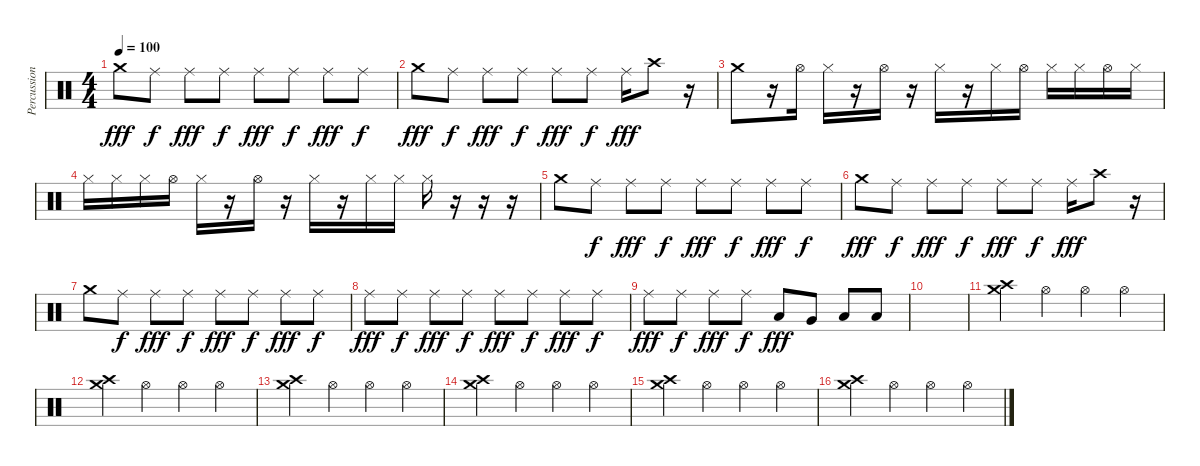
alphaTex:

\track ("Percussion" "Percussion") {instrument percussion}
\staff {score}
\articulation defaults
\ts (4 4)
\tempo 100
\clef neutral
\ks c "Crash medium (hit)".8{dy fff} "Ride (middle)".8{dy f} "Ride (middle)".8{dy fff} "Ride (middle)".8{dy f} "Ride (middle)".8{dy fff} "Ride (middle)".8{dy f} "Ride (middle)".8{dy fff} "Ride (middle)".8{dy f}
|
"Crash medium (hit)".8{dy fff} "Ride (middle)".8{dy f} "Ride (middle)".8{dy fff} "Ride (middle)".8{dy f} "Ride (middle)".8{dy fff} "Ride (middle)".8{dy f} "Ride (middle)".16{dy fff} "Crash high (hit)".8 r.16 |
"Crash medium (hit)".8 r.16 "Hi-Hat (open)".16 "Hi-Hat (closed)".16 r.16 "Hi-Hat (open)".16 r.16 "Hi-Hat (closed)".16 r.16 "Hi-Hat (closed)".16 "Hi-Hat (open)".16 "Hi-Hat (closed)".16 "Hi-Hat (closed)".16 "Hi-Hat (open)".16 "Hi-Hat (closed)".16 |
"Hi-Hat (closed)".16 "Hi-Hat (closed)".16 "Hi-Hat (closed)".16 "Hi-Hat (open)".16 "Hi-Hat (closed)".16 r.16 "Hi-Hat (open)".16 r.16 "Hi-Hat (closed)".16 r.16 "Hi-Hat (closed)".16 "Hi-Hat (closed)".16 "Hi-Hat (closed)".16 r.16 r.16 r.16 |
"Crash medium (hit)".8 "Ride (middle)".8{dy f} "Ride (middle)".8{dy fff} "Ride (middle)".8{dy f} "Ride (middle)".8{dy fff} "Ride (middle)".8{dy f} "Ride (middle)".8{dy fff} "Ride (middle)".8{dy f} |
"Crash medium (hit)".8{dy fff} "Ride (middle)".8{dy f} "Ride (middle)".8{dy fff} "Ride (middle)".8{dy f} "Ride (middle)".8{dy fff} "Ride (middle)".8{dy f} "Ride (middle)".16{dy fff} "Crash high (hit)".8 r.16 |
"Crash medium (hit)".8 "Ride (middle)".8{dy f} "Ride (middle)".8{dy fff} "Ride (middle)".8{dy f} "Ride (middle)".8{dy fff} "Ride (middle)".8{dy f} "Ride (middle)".8{dy fff} "Ride (middle)".8{dy f} |
"Ride (middle)".8{dy fff} "Ride (middle)".8{dy f} "Ride (middle)".8{dy fff} "Ride (middle)".8{dy f} "Ride (middle)".8{dy fff} "Ride (middle)".8{dy f} "Ride (middle)".8{dy fff} "Ride (middle)".8{dy f} |
"Ride (middle)".8{dy fff} "Ride (middle)".8{dy f} "Ride (middle)".8{dy fff} "Ride (middle)".8{dy f} "Low Tom (hit)".8{dy fff} "Very Low Tom (hit)".8 "Low Floor Tom (hit)".8 "Low Floor Tom (hit)".8 |
|
("Crash high (hit)" "Crash medium (hit)").4 "Hi-Hat (open)".4 "Hi-Hat (open)".4 "Hi-Hat (open)".4 |
("Crash high (hit)" "Crash medium (hit)").4 "Hi-Hat (open)".4 "Hi-Hat (open)".4 "Hi-Hat (open)".4 |
("Crash high (hit)" "Crash medium (hit)").4 "Hi-Hat (open)".4 "Hi-Hat (open)".4 "Hi-Hat (open)".4 |
("Crash high (hit)" "Crash medium (hit)").4 "Hi-Hat (open)".4 "Hi-Hat (open)".4 "Hi-Hat (open)".4 |
("Crash high (hit)" "Crash medium (hit)").4 "Hi-Hat (open)".4 "Hi-Hat (open)".4 "Hi-Hat (open)".4 |
("Crash high (hit)" "Crash medium (hit)").4 "Hi-Hat (open)".4 "Hi-Hat (open)".4 "Hi-Hat (open)".4
